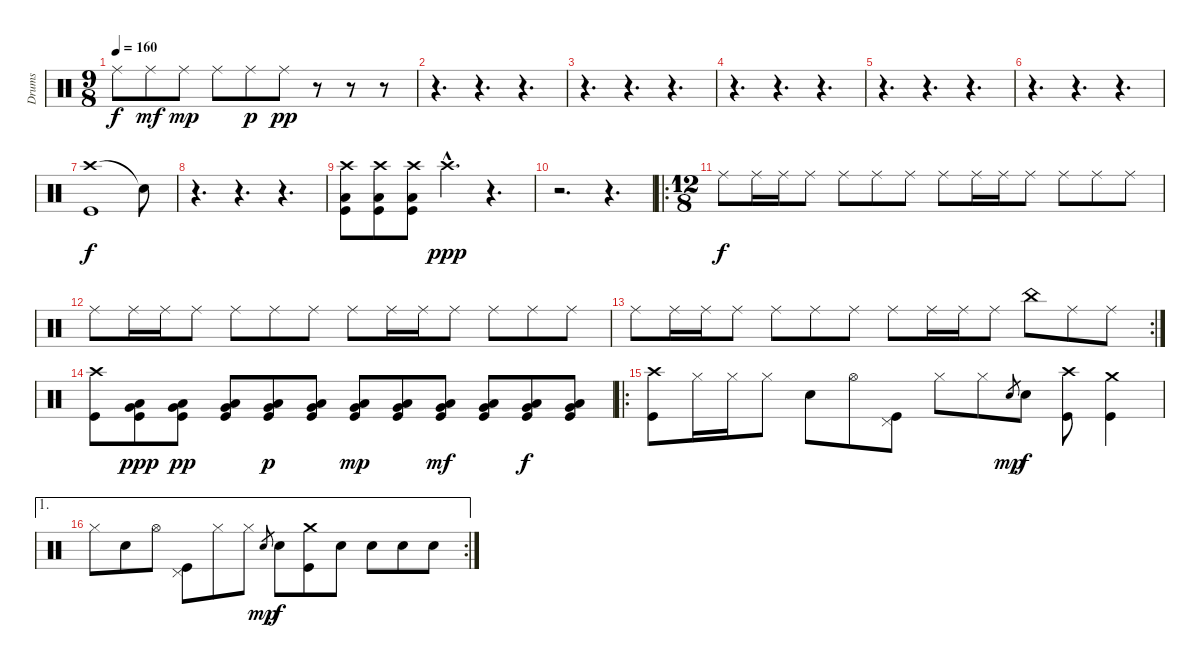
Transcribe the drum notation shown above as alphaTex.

\track ("Drums" "Drums") {instrument percussion}
\staff {score}
\articulation defaults
\ts (9 8)
\tempo 160
\clef neutral
\ks c "Ride (middle)".8{dy f} "Ride (middle)".8{dy mf} "Ride (middle)".8{dy mp} "Ride (middle)".8 "Ride (middle)".8{dy p} "Ride (middle)".8{dy pp}
r.8 r.8 r.8 |
r.4{d} r.4{d} r.4{d} |
r.4{d} r.4{d} r.4{d} |
r.4{d} r.4{d} r.4{d} |
r.4{d} r.4{d} r.4{d} |
r.4{d} r.4{d} r.4{d} |
("Crash high (hit)" "Kick (hit)").1{dy f} "Snare (hit)"{t}.8 |
r.4{d} r.4{d} r.4{d} |
("Crash high (hit)" "Low Floor Tom (hit)" "Kick (hit)").8 ("Crash high (hit)" "Low Floor Tom (hit)" "Kick (hit)").8 ("Crash high (hit)" "Low Floor Tom (hit)" "Kick (hit)").8 "Crash high (hit)"{hac}.4{d dy ppp} r.4{d} |
r.2{d} r.4{d} |
\ro
\ts (12 8)
"Ride (middle)".8{dy f} "Ride (middle)".16 "Ride (middle)".16 "Ride (middle)".8 "Ride (middle)".8 "Ride (middle)".8 "Ride (middle)".8 "Ride (middle)".8 "Ride (middle)".16 "Ride (middle)".16 "Ride (middle)".8 "Ride (middle)".8 "Ride (middle)".8 "Ride (middle)".8 |
"Ride (middle)".8 "Ride (middle)".16 "Ride (middle)".16 "Ride (middle)".8 "Ride (middle)".8 "Ride (middle)".8 "Ride (middle)".8 "Ride (middle)".8 "Ride (middle)".16 "Ride (middle)".16 "Ride (middle)".8 "Ride (middle)".8 "Ride (middle)".8 "Ride (middle)".8 |
\rc 2 "Ride (middle)".8 "Ride (middle)".16 "Ride (middle)".16 "Ride (middle)".8 "Ride (middle)".8 "Ride (middle)".8 "Ride (middle)".8 "Ride (middle)".8 "Ride (middle)".16 "Ride (middle)".16 "Ride (middle)".8 "China (hit)".8 "Ride (middle)".8 "Ride (middle)".8
|
("Crash high (hit)" "Kick (hit)").8 ("Very Low Tom (hit)" "Low Floor Tom (hit)" "Kick (hit)").8{dy ppp} ("Very Low Tom (hit)" "Low Floor Tom (hit)" "Kick (hit)").8{dy pp} ("Very Low Tom (hit)" "Low Floor Tom (hit)" "Kick (hit)").8 ("Very Low Tom (hit)" "Low Floor Tom (hit)" "Kick (hit)").8{dy p} ("Very Low Tom (hit)" "Low Floor Tom (hit)" "Kick (hit)").8 ("Very Low Tom (hit)" "Low Floor Tom (hit)" "Kick (hit)").8{dy mp} ("Very Low Tom (hit)" "Low Floor Tom (hit)" "Kick (hit)").8 ("Very Low Tom (hit)" "Low Floor Tom (hit)" "Kick (hit)").8{dy mf} ("Very Low Tom (hit)" "Low Floor Tom (hit)" "Kick (hit)").8 ("Very Low Tom (hit)" "Low Floor Tom (hit)" "Kick (hit)").8{dy f} ("Very Low Tom (hit)" "Low Floor Tom (hit)" "Kick (hit)").8 |
\ro
("Crash high (hit)" "Kick (hit)").8 "Hi-Hat (closed)".16 "Hi-Hat (closed)".16 "Hi-Hat (closed)".8 "Electric Snare (hit)".8 "Hi-Hat (open)".8 ("Pedal Hi-Hat (hit)" "Kick (hit)").8 "Hi-Hat (closed)".8 "Hi-Hat (closed)".8 "Electric Snare (hit)".8{gr dy mp} "Electric Snare (hit)".8{dy f} ("Crash high (hit)" "Kick (hit)").8 ("Crash medium (hit)" "Kick (hit)").4 |
\ae 1
\rc 2 "Hi-Hat (closed)".8 "Electric Snare (hit)".8 "Hi-Hat (open)".8
("Pedal Hi-Hat (hit)" "Kick (hit)").8 "Hi-Hat (closed)".8 "Hi-Hat (closed)".8 "Electric Snare (hit)".8{gr dy mp} "Electric Snare (hit)".8{dy f} ("Crash medium (hit)" "Kick (hit)").8 "Electric Snare (hit)".8 "Electric Snare (hit)".8 "Electric Snare (hit)".8 "Electric Snare (hit)".8
